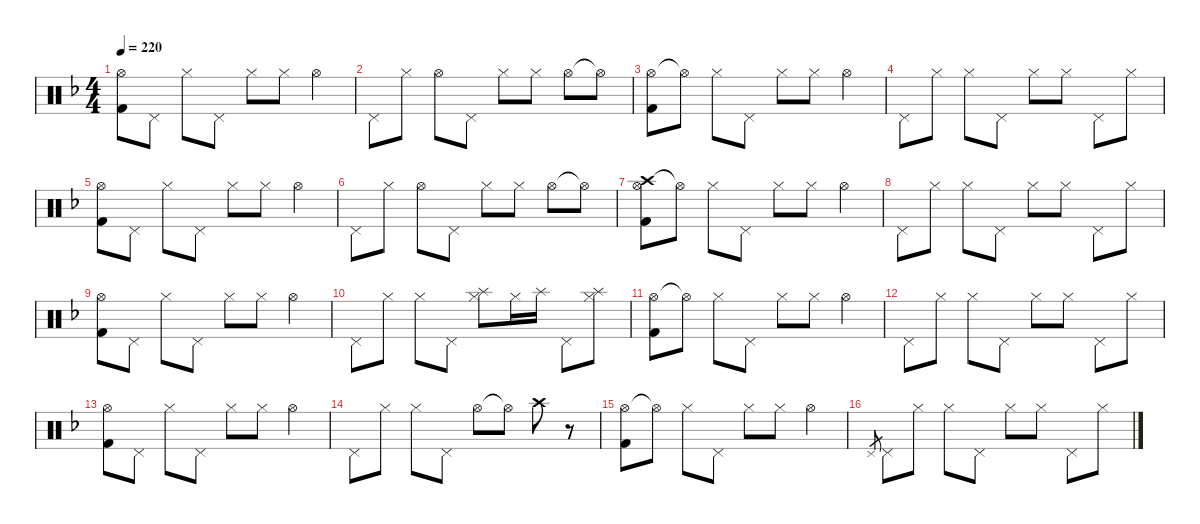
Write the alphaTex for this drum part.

\hideDynamics
\bracketExtendMode nobrackets
\singleTrackTrackNamePolicy hidden
\multiTrackTrackNamePolicy hidden
\firstSystemTrackNameMode fullname
\firstSystemTrackNameOrientation horizontal
\otherSystemsTrackNameOrientation horizontal
\track ("Drumkit" "Drums") {instrument percussion}
\staff {score}
\articulation defaults
\ts (4 4)
\tempo 220
\clef neutral
\ks dminor
("Hi-Hat (open)"{acc forcenatural} "Kick (hit) 2"{acc forcenatural}).8{dy mf beam Down} "Pedal Hi-Hat (hit)"{acc forcenatural}.8{beam Down} "Hi-Hat (closed)"{acc forcenatural}.8{dy mp beam Down} "Pedal Hi-Hat (hit)"{acc forcenatural}.8{beam Down} "Hi-Hat (closed)"{acc forcenatural}.8{beam Down} "Hi-Hat (closed)"{acc forcenatural}.8{beam Down} "Hi-Hat (open)"{acc forcenatural}.4{dy mf beam Down} |
"Pedal Hi-Hat (hit)"{acc forcenatural}.8{beam Down} "Hi-Hat (closed)"{acc forcenatural}.8{dy mp beam Down} "Hi-Hat (open)"{acc forcenatural}.8{dy mf beam Down} "Pedal Hi-Hat (hit)"{acc forcenatural}.8{dy f beam Down} "Hi-Hat (closed)"{acc forcenatural}.8{dy mp beam Down} "Hi-Hat (closed)"{acc forcenatural}.8{beam Down} "Hi-Hat (open)"{acc forcenatural}.8{dy mf beam Down} "Hi-Hat (open)"{t acc forcenatural}.8{dy f beam Down} |
("Hi-Hat (open)"{acc forcenatural} "Kick (hit) 2"{acc forcenatural}).8{dy mf beam Down} "Hi-Hat (open)"{t acc forcenatural}.8{dy f beam Down} "Hi-Hat (closed)"{acc forcenatural}.8{dy mp beam Down} "Pedal Hi-Hat (hit)"{acc forcenatural}.8{beam Down} "Hi-Hat (closed)"{acc forcenatural}.8{beam Down} "Hi-Hat (closed)"{acc forcenatural}.8{beam Down} "Hi-Hat (open)"{acc forcenatural}.4{dy mf beam Down} |
"Pedal Hi-Hat (hit)"{acc forcenatural}.8{beam Down} "Hi-Hat (closed)"{acc forcenatural}.8{dy mp beam Down} "Hi-Hat (closed)"{acc forcenatural}.8{beam Down} "Pedal Hi-Hat (hit)"{acc forcenatural}.8{dy mf beam Down} "Hi-Hat (closed)"{acc forcenatural}.8{dy mp beam Down} "Hi-Hat (closed)"{acc forcenatural}.8{beam Down} "Pedal Hi-Hat (hit)"{acc forcenatural}.8{dy mf beam Down} "Hi-Hat (closed)"{acc forcenatural}.8{dy mp beam Down} |
("Hi-Hat (open)"{acc forcenatural} "Kick (hit) 2"{acc forcenatural}).8{dy mf beam Down} "Pedal Hi-Hat (hit)"{acc forcenatural}.8{beam Down} "Hi-Hat (closed)"{acc forcenatural}.8{dy mp beam Down} "Pedal Hi-Hat (hit)"{acc forcenatural}.8{beam Down} "Hi-Hat (closed)"{acc forcenatural}.8{beam Down} "Hi-Hat (closed)"{acc forcenatural}.8{beam Down} "Hi-Hat (open)"{acc forcenatural}.4{dy mf beam Down} |
"Pedal Hi-Hat (hit)"{acc forcenatural}.8{beam Down} "Hi-Hat (closed)"{acc forcenatural}.8{dy mp beam Down} "Hi-Hat (open)"{acc forcenatural}.8{dy mf beam Down} "Pedal Hi-Hat (hit)"{acc forcenatural}.8{dy f beam Down} "Hi-Hat (closed)"{acc forcenatural}.8{dy mp beam Down} "Hi-Hat (closed)"{acc forcenatural}.8{beam Down} "Hi-Hat (open)"{acc forcenatural}.8{dy mf beam Down} "Hi-Hat (open)"{t acc forcenatural}.8{dy f beam Down} |
("Crash high (hit)"{acc forcenatural} "Hi-Hat (open)"{acc forcenatural} "Kick (hit) 2"{acc forcenatural}).8{dy mp beam Down} "Hi-Hat (open)"{t acc forcenatural}.8{dy f beam Down} "Hi-Hat (closed)"{acc forcenatural}.8{dy mp beam Down} "Pedal Hi-Hat (hit)"{acc forcenatural}.8{beam Down} "Hi-Hat (closed)"{acc forcenatural}.8{beam Down} "Hi-Hat (closed)"{acc forcenatural}.8{beam Down} "Hi-Hat (open)"{acc forcenatural}.4{dy mf beam Down} |
"Pedal Hi-Hat (hit)"{acc forcenatural}.8{beam Down} "Hi-Hat (closed)"{acc forcenatural}.8{dy mp beam Down} "Hi-Hat (closed)"{acc forcenatural}.8{beam Down} "Pedal Hi-Hat (hit)"{acc forcenatural}.8{dy mf beam Down} "Hi-Hat (closed)"{acc forcenatural}.8{dy mp beam Down} "Hi-Hat (closed)"{acc forcenatural}.8{beam Down} "Pedal Hi-Hat (hit)"{acc forcenatural}.8{dy mf beam Down} "Hi-Hat (closed)"{acc forcenatural}.8{dy mp beam Down} |
("Hi-Hat (open)"{acc forcenatural} "Kick (hit) 2"{acc forcenatural}).8{dy mf beam Down} "Pedal Hi-Hat (hit)"{acc forcenatural}.8{beam Down} "Hi-Hat (closed)"{acc forcenatural}.8{dy mp beam Down} "Pedal Hi-Hat (hit)"{acc forcenatural}.8{beam Down} "Hi-Hat (closed)"{acc forcenatural}.8{beam Down} "Hi-Hat (closed)"{acc forcenatural}.8{beam Down} "Hi-Hat (open)"{acc forcenatural}.4{dy mf beam Down} |
"Pedal Hi-Hat (hit)"{acc forcenatural}.8{beam Down} "Hi-Hat (closed)"{acc forcenatural}.8{dy mp beam Down} "Hi-Hat (closed)"{acc forcenatural}.8{beam Down} "Pedal Hi-Hat (hit)"{acc forcenatural}.8{dy mf beam Down} ("Splash (hit)"{acc forcenatural} "Hi-Hat (closed)"{acc forcenatural}).8{dy mp beam Down} "Hi-Hat (closed)"{acc forcenatural}.16{beam Down} "Splash (hit)"{acc forcenatural}.16{beam Down} "Pedal Hi-Hat (hit)"{acc forcenatural}.8{dy mf beam Down} ("Splash (hit)"{acc forcenatural} "Hi-Hat (closed)"{acc forcenatural}).8{dy mp beam Down} |
("Hi-Hat (open)"{acc forcenatural} "Kick (hit) 2"{acc forcenatural}).8{dy mf beam Down} "Hi-Hat (open)"{t acc forcenatural}.8{dy f beam Down} "Hi-Hat (closed)"{acc forcenatural}.8{dy mp beam Down} "Pedal Hi-Hat (hit)"{acc forcenatural}.8{beam Down} "Hi-Hat (closed)"{acc forcenatural}.8{beam Down} "Hi-Hat (closed)"{acc forcenatural}.8{beam Down} "Hi-Hat (open)"{acc forcenatural}.4{dy mf beam Down} |
"Pedal Hi-Hat (hit)"{acc forcenatural}.8{beam Down} "Hi-Hat (closed)"{acc forcenatural}.8{dy mp beam Down} "Hi-Hat (closed)"{acc forcenatural}.8{beam Down} "Pedal Hi-Hat (hit)"{acc forcenatural}.8{dy mf beam Down} "Hi-Hat (closed)"{acc forcenatural}.8{dy mp beam Down} "Hi-Hat (closed)"{acc forcenatural}.8{beam Down} "Pedal Hi-Hat (hit)"{acc forcenatural}.8{dy mf beam Down} "Hi-Hat (closed)"{acc forcenatural}.8{dy mp beam Down} |
("Hi-Hat (open)"{acc forcenatural} "Kick (hit) 2"{acc forcenatural}).8{dy mf beam Down} "Pedal Hi-Hat (hit)"{acc forcenatural}.8{beam Down} "Hi-Hat (closed)"{acc forcenatural}.8{dy mp beam Down} "Pedal Hi-Hat (hit)"{acc forcenatural}.8{beam Down} "Hi-Hat (closed)"{acc forcenatural}.8{beam Down} "Hi-Hat (closed)"{acc forcenatural}.8{beam Down} "Hi-Hat (open)"{acc forcenatural}.4{dy mf beam Down} |
"Pedal Hi-Hat (hit)"{acc forcenatural}.8{beam Down} "Hi-Hat (closed)"{acc forcenatural}.8{dy mp beam Down} "Hi-Hat (closed)"{acc forcenatural}.8{beam Down} "Pedal Hi-Hat (hit)"{acc forcenatural}.8{dy mf beam Down} "Hi-Hat (open)"{acc forcenatural}.8{beam Down} "Hi-Hat (open)"{t acc forcenatural}.8{dy f beam Down} "Crash high (hit)"{acc forcenatural}.8{dy mf beam Down} r.8{beam Down} |
("Hi-Hat (open)"{acc forcenatural} "Kick (hit) 2"{acc forcenatural}).8{beam Down} "Hi-Hat (open)"{t acc forcenatural}.8{dy f beam Down} "Hi-Hat (closed)"{acc forcenatural}.8{dy mp beam Down} "Pedal Hi-Hat (hit)"{acc forcenatural}.8{beam Down} "Hi-Hat (closed)"{acc forcenatural}.8{beam Down} "Hi-Hat (closed)"{acc forcenatural}.8{beam Down} "Hi-Hat (open)"{acc forcenatural}.4{dy mf beam Down} |
"Pedal Hi-Hat (hit)"{acc forcenatural}.8{gr dy p beam Up} "Pedal Hi-Hat (hit)"{acc forcenatural}.8{dy mf beam Down} "Hi-Hat (closed)"{acc forcenatural}.8{dy mp beam Down} "Hi-Hat (closed)"{acc forcenatural}.8{beam Down} "Pedal Hi-Hat (hit)"{acc forcenatural}.8{dy mf beam Down} "Hi-Hat (closed)"{acc forcenatural}.8{dy mp beam Down} "Hi-Hat (closed)"{acc forcenatural}.8{beam Down} "Pedal Hi-Hat (hit)"{acc forcenatural}.8{dy mf beam Down} "Hi-Hat (closed)"{acc forcenatural}.8{dy mp beam Down}
